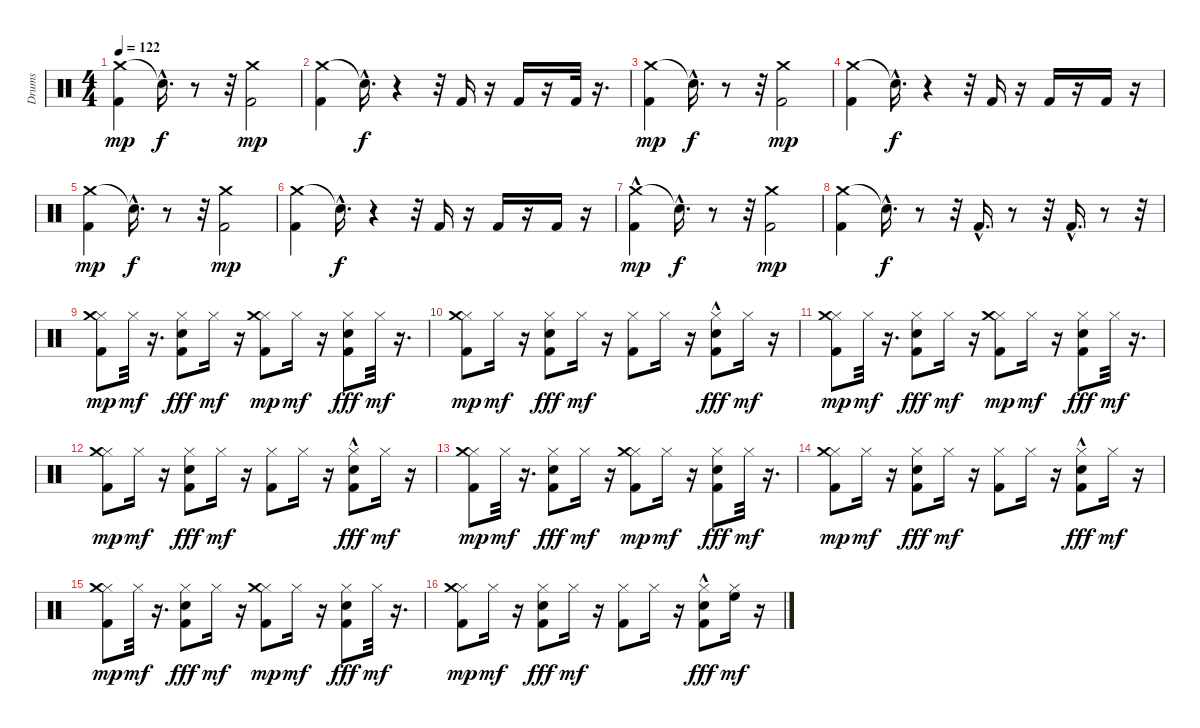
\track ("Drums" "Drums") {instrument percussion}
\staff {score}
\articulation defaults
\ts (4 4)
\tempo 122
\clef neutral
\ks c
("Crash medium (hit)" "Kick (hit) 2").4{dy mp} "Snare (hit)"{hac t}.16{d dy f} r.8 r.32 ("Crash medium (hit)" "Kick (hit) 2").2{dy mp} |
("Crash medium (hit)" "Kick (hit) 2").4 "Snare (hit)"{hac t}.16{d dy f} r.4 r.32 "Kick (hit) 2".16 r.16 "Kick (hit) 2".16 r.16 "Kick (hit) 2".32 r.16{d} |
("Crash medium (hit)" "Kick (hit) 2").4{dy mp} "Snare (hit)"{hac t}.16{d dy f} r.8 r.32 ("Crash medium (hit)" "Kick (hit) 2").2{dy mp} |
("Crash medium (hit)" "Kick (hit) 2").4 "Snare (hit)"{hac t}.16{d dy f} r.4 r.32 "Kick (hit) 2".16 r.16 "Kick (hit) 2".16 r.16 "Kick (hit) 2".16 r.16 |
("Crash medium (hit)" "Kick (hit) 2").4{dy mp} "Snare (hit)"{hac t}.16{d dy f} r.8 r.32 ("Crash medium (hit)" "Kick (hit) 2").2{dy mp} |
("Crash medium (hit)" "Kick (hit) 2").4 "Snare (hit)"{hac t}.16{d dy f} r.4 r.32 "Kick (hit) 2".16 r.16 "Kick (hit) 2".16 r.16 "Kick (hit) 2".16 r.16 |
("Crash medium (hit)" "Kick (hit) 2"{hac}).4{dy mp} "Snare (hit)"{hac t}.16{d dy f} r.8 r.32 ("Crash medium (hit)" "Kick (hit) 2").2{dy mp} |
("Crash medium (hit)" "Kick (hit) 2").4 "Snare (hit)"{hac t}.16{d dy f} r.8 r.32 "Kick (hit) 2"{hac}.16{d} r.8 r.32 "Kick (hit) 2"{hac}.16{d} r.8 r.32 |
("Hi-Hat (closed)" "Crash medium (hit)" "Kick (hit) 2").8{dy mp} "Hi-Hat (closed)".32{dy mf} r.16{d} ("Hi-Hat (closed)" "Electric Snare (hit)" "Kick (hit) 2").8{dy fff} "Hi-Hat (closed)".16{dy mf} r.16 ("Hi-Hat (closed)" "Crash medium (hit)" "Kick (hit) 2").8{dy mp} "Hi-Hat (closed)".16{dy mf} r.16 ("Hi-Hat (closed)" "Electric Snare (hit)" "Kick (hit) 2").8{dy fff} "Hi-Hat (closed)".32{dy mf} r.16{d} |
("Hi-Hat (closed)" "Crash medium (hit)" "Kick (hit) 2").8{dy mp} "Hi-Hat (closed)".16{dy mf} r.16 ("Hi-Hat (closed)" "Electric Snare (hit)" "Kick (hit) 2").8{dy fff} "Hi-Hat (closed)".16{dy mf} r.16 ("Hi-Hat (closed)" "Kick (hit) 2").8 "Hi-Hat (closed)".16 r.16 ("Hi-Hat (closed)" "Electric Snare (hit)"{hac} "Kick (hit) 2"{hac}).8{dy fff} "Hi-Hat (closed)".16{dy mf} r.16 |
("Hi-Hat (closed)" "Crash medium (hit)" "Kick (hit) 2").8{dy mp} "Hi-Hat (closed)".32{dy mf} r.16{d} ("Hi-Hat (closed)" "Electric Snare (hit)" "Kick (hit) 2").8{dy fff} "Hi-Hat (closed)".16{dy mf} r.16 ("Hi-Hat (closed)" "Crash medium (hit)" "Kick (hit) 2").8{dy mp} "Hi-Hat (closed)".16{dy mf} r.16 ("Hi-Hat (closed)" "Electric Snare (hit)" "Kick (hit) 2").8{dy fff} "Hi-Hat (closed)".32{dy mf} r.16{d} |
("Hi-Hat (closed)" "Crash medium (hit)" "Kick (hit) 2").8{dy mp} "Hi-Hat (closed)".16{dy mf} r.16 ("Hi-Hat (closed)" "Electric Snare (hit)" "Kick (hit) 2").8{dy fff} "Hi-Hat (closed)".16{dy mf} r.16 ("Hi-Hat (closed)" "Kick (hit) 2").8 "Hi-Hat (closed)".16 r.16 ("Hi-Hat (closed)" "Electric Snare (hit)" "Kick (hit) 2"{hac}).8{dy fff} "Hi-Hat (closed)".16{dy mf} r.16 |
("Hi-Hat (closed)" "Crash medium (hit)" "Kick (hit) 2").8{dy mp} "Hi-Hat (closed)".32{dy mf} r.16{d} ("Hi-Hat (closed)" "Electric Snare (hit)" "Kick (hit) 2").8{dy fff} "Hi-Hat (closed)".16{dy mf} r.16 ("Hi-Hat (closed)" "Crash medium (hit)" "Kick (hit) 2").8{dy mp} "Hi-Hat (closed)".16{dy mf} r.16 ("Hi-Hat (closed)" "Electric Snare (hit)" "Kick (hit) 2").8{dy fff} "Hi-Hat (closed)".32{dy mf} r.16{d} |
("Hi-Hat (closed)" "Crash medium (hit)" "Kick (hit) 2").8{dy mp} "Hi-Hat (closed)".16{dy mf} r.16 ("Hi-Hat (closed)" "Electric Snare (hit)" "Kick (hit) 2").8{dy fff} "Hi-Hat (closed)".16{dy mf} r.16 ("Hi-Hat (closed)" "Kick (hit) 2").8 "Hi-Hat (closed)".16 r.16 ("Hi-Hat (closed)" "Electric Snare (hit)" "Kick (hit) 2"{hac}).8{dy fff} "Hi-Hat (closed)".16{dy mf} r.16 |
("Hi-Hat (closed)" "Crash medium (hit)" "Kick (hit) 2").8{dy mp} "Hi-Hat (closed)".32{dy mf} r.16{d} ("Hi-Hat (closed)" "Electric Snare (hit)" "Kick (hit) 2").8{dy fff} "Hi-Hat (closed)".16{dy mf} r.16 ("Hi-Hat (closed)" "Crash medium (hit)" "Kick (hit) 2").8{dy mp} "Hi-Hat (closed)".16{dy mf} r.16 ("Hi-Hat (closed)" "Electric Snare (hit)" "Kick (hit) 2").8{dy fff} "Hi-Hat (closed)".32{dy mf} r.16{d} |
("Hi-Hat (closed)" "Crash medium (hit)" "Kick (hit) 2").8{dy mp} "Hi-Hat (closed)".16{dy mf} r.16 ("Hi-Hat (closed)" "Electric Snare (hit)" "Kick (hit) 2").8{dy fff} "Hi-Hat (closed)".16{dy mf} r.16 ("Hi-Hat (closed)" "Kick (hit) 2").8 "Hi-Hat (closed)".16 r.16 ("Hi-Hat (closed)" "Electric Snare (hit)" "Kick (hit) 2"{hac}).8{dy fff} ("High Floor Tom (hit)" "Hi-Hat (closed)").16{dy mf} r.16
